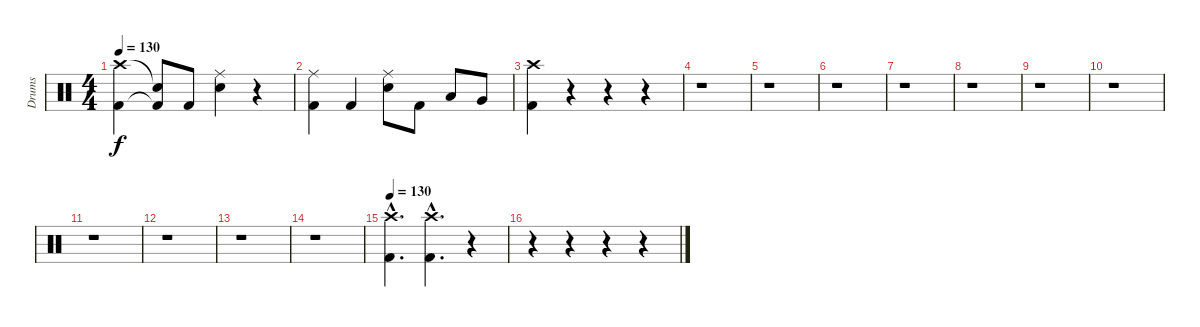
\track ("Drums" "Drums") {instrument percussion}
\staff {score}
\articulation defaults
\ts (4 4)
\tempo 130
\clef neutral
\ks c
("Crash high (hit)" "Kick (hit) 2").4{dy f} ("Snare (hit)"{t} "Kick (hit) 2"{t}).8 "Kick (hit) 2".8 ("Ride (middle)" "Electric Snare (hit)").4 r.4 |
("Ride (middle)" "Kick (hit) 2").4 "Kick (hit) 2".4 ("Ride (middle)" "Electric Snare (hit)").8 "Kick (hit) 2".8 "Low Tom (hit)".8 "Very Low Tom (hit)".8 |
("Crash high (hit)" "Kick (hit) 2").4 r.4 r.4 r.4 |
r.1 |
r.1 |
r.1 |
r.1 |
r.1 |
r.1 |
r.1 |
r.1 |
r.1 |
r.1 |
r.1 |
\tempo 130
("Crash high (hit)"{hac} "Kick (hit) 2"{hac}).4{d} ("Crash high (hit)"{hac} "Kick (hit) 2"{hac}).4{d} r.4 |
r.4 r.4 r.4 r.4
